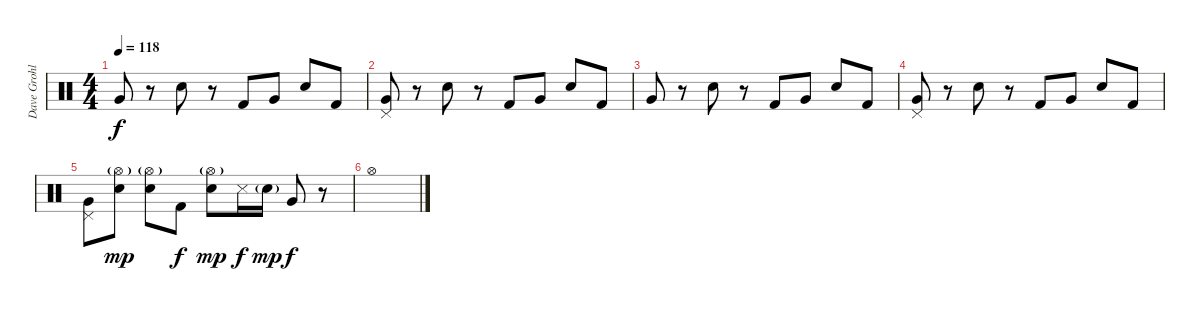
\track ("Dave Grohl - Drums" "Dave Grohl") {instrument percussion}
\staff {score}
\articulation defaults
\ts (4 4)
\tempo 118
\clef neutral
\ks c "Very Low Tom (hit)".8{dy f}
r.8 "Electric Snare (hit)".8 r.8 "Kick (hit) 2".8 "Very Low Tom (hit)".8 "Electric Snare (hit)".8 "Kick (hit) 2".8 |
("Pedal Hi-Hat (hit)" "Very Low Tom (hit)").8 r.8 "Electric Snare (hit)".8 r.8 "Kick (hit) 2".8 "Very Low Tom (hit)".8 "Electric Snare (hit)".8 "Kick (hit) 2".8 |
"Very Low Tom (hit)".8 r.8 "Electric Snare (hit)".8 r.8 "Kick (hit) 2".8 "Very Low Tom (hit)".8 "Electric Snare (hit)".8 "Kick (hit) 2".8 |
("Pedal Hi-Hat (hit)" "Very Low Tom (hit)").8 r.8 "Electric Snare (hit)".8 r.8 "Kick (hit) 2".8 "Very Low Tom (hit)".8 "Electric Snare (hit)".8 "Kick (hit) 2".8 |
("Pedal Hi-Hat (hit)" "Very Low Tom (hit)").8 ("Hi-Hat (open)"{g} "Electric Snare (hit)").8{dy mp} ("Hi-Hat (open)"{g} "Electric Snare (hit)").8 "Kick (hit) 2".8{dy f} ("Hi-Hat (open)"{g} "Electric Snare (hit)").8{dy mp} "Snare (side stick) 3".16{dy f} "Electric Snare (hit)"{g}.16{dy mp} "Very Low Tom (hit)".8{dy f} r.8 |
"Hi-Hat (open)".1
